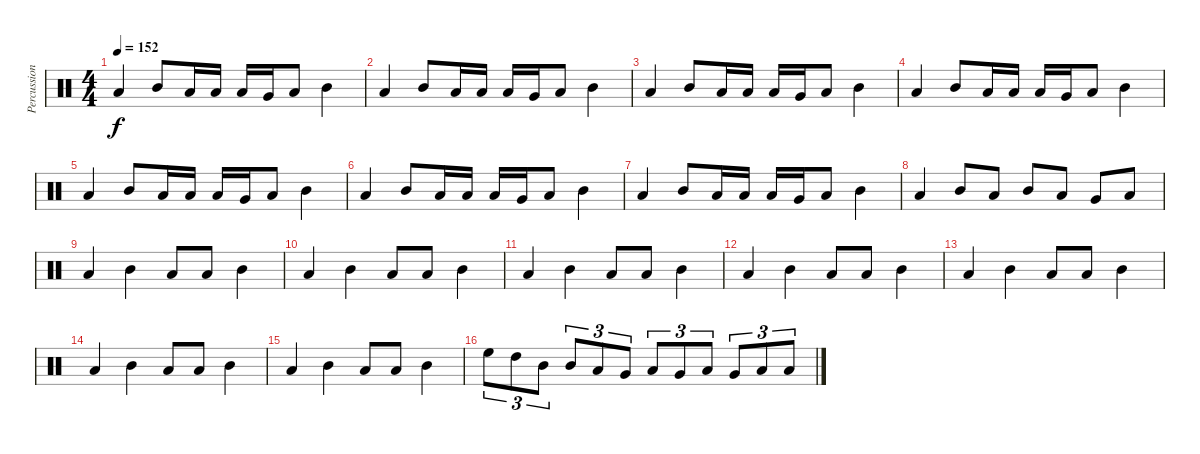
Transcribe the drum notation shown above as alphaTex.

\track ("Percussion" "Percussion") {instrument percussion}
\staff {score}
\articulation defaults
\ts (4 4)
\tempo 152
\clef neutral
\ks c "Low Tom (hit)".4{dy f} "Mid Tom (hit)".8 "Low Tom (hit)".16 "Low Tom (hit)".16 "Low Tom (hit)".16 "Very Low Tom (hit)".16 "Low Floor Tom (hit)".8 "Mid Tom (hit)".4
|
"Low Tom (hit)".4 "Mid Tom (hit)".8 "Low Tom (hit)".16 "Low Tom (hit)".16 "Low Tom (hit)".16 "Very Low Tom (hit)".16 "Low Floor Tom (hit)".8 "Mid Tom (hit)".4 |
"Low Tom (hit)".4 "Mid Tom (hit)".8 "Low Tom (hit)".16 "Low Tom (hit)".16 "Low Tom (hit)".16 "Very Low Tom (hit)".16 "Low Floor Tom (hit)".8 "Mid Tom (hit)".4 |
"Low Tom (hit)".4 "Mid Tom (hit)".8 "Low Tom (hit)".16 "Low Tom (hit)".16 "Low Tom (hit)".16 "Very Low Tom (hit)".16 "Low Floor Tom (hit)".8 "Mid Tom (hit)".4 |
"Low Tom (hit)".4 "Mid Tom (hit)".8 "Low Tom (hit)".16 "Low Tom (hit)".16 "Low Tom (hit)".16 "Very Low Tom (hit)".16 "Low Floor Tom (hit)".8 "Mid Tom (hit)".4 |
"Low Tom (hit)".4 "Mid Tom (hit)".8 "Low Tom (hit)".16 "Low Tom (hit)".16 "Low Tom (hit)".16 "Very Low Tom (hit)".16 "Low Floor Tom (hit)".8 "Mid Tom (hit)".4 |
"Low Tom (hit)".4 "Mid Tom (hit)".8 "Low Tom (hit)".16 "Low Tom (hit)".16 "Low Tom (hit)".16 "Very Low Tom (hit)".16 "Low Floor Tom (hit)".8 "Mid Tom (hit)".4 |
"Low Tom (hit)".4 "Mid Tom (hit)".8 "Low Tom (hit)".8 "Mid Tom (hit)".8 "Low Tom (hit)".8 "Very Low Tom (hit)".8 "Low Floor Tom (hit)".8 |
"Low Tom (hit)".4 "Mid Tom (hit)".4 "Low Tom (hit)".8 "Low Tom (hit)".8 "Mid Tom (hit)".4 |
"Low Tom (hit)".4 "Mid Tom (hit)".4 "Low Tom (hit)".8 "Low Tom (hit)".8 "Mid Tom (hit)".4 |
"Low Tom (hit)".4 "Mid Tom (hit)".4 "Low Tom (hit)".8 "Low Tom (hit)".8 "Mid Tom (hit)".4 |
"Low Tom (hit)".4 "Mid Tom (hit)".4 "Low Tom (hit)".8 "Low Tom (hit)".8 "Mid Tom (hit)".4 |
"Low Tom (hit)".4 "Mid Tom (hit)".4 "Low Tom (hit)".8 "Low Tom (hit)".8 "Mid Tom (hit)".4 |
"Low Tom (hit)".4 "Mid Tom (hit)".4 "Low Tom (hit)".8 "Low Tom (hit)".8 "Mid Tom (hit)".4 |
"Low Tom (hit)".4 "Mid Tom (hit)".4 "Low Tom (hit)".8 "Low Tom (hit)".8 "Mid Tom (hit)".4 |
"High Floor Tom (hit)".8{tu (3 2)} "High Tom (hit)".8{tu (3 2)} "Mid Tom (hit)".8{tu (3 2)} "Mid Tom (hit)".8{tu (3 2)} "Low Tom (hit)".8{tu (3 2)} "Very Low Tom (hit)".8{tu (3 2)} "Low Tom (hit)".8{tu (3 2)} "Very Low Tom (hit)".8{tu (3 2)} "Low Floor Tom (hit)".8{tu (3 2)} "Very Low Tom (hit)".8{tu (3 2)} "Low Floor Tom (hit)".8{tu (3 2)} "Low Floor Tom (hit)".8{tu (3 2)}
